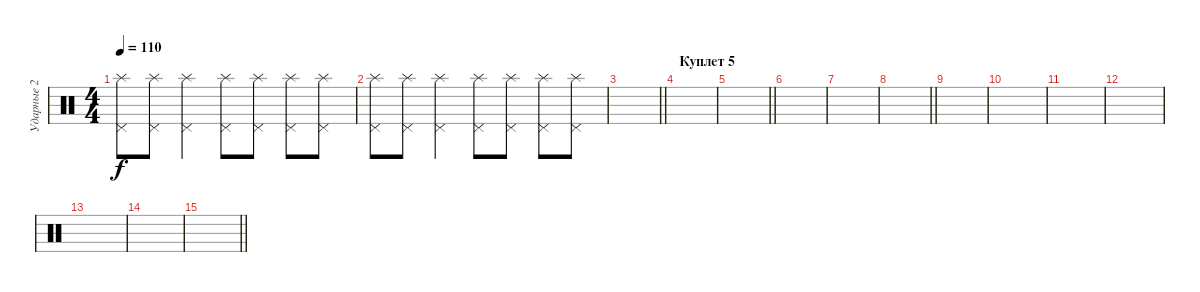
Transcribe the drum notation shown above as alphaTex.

\track ("Ударные 2" "Ударные 2") {instrument percussion}
\staff {score}
\articulation defaults
\ts (4 4)
\tempo 110
\clef neutral
\ks c
("Pedal Hi-Hat (hit)" "Splash (hit)").8{dy f} ("Pedal Hi-Hat (hit)" "Splash (hit)").8 ("Pedal Hi-Hat (hit)" "Splash (hit)").4 ("Pedal Hi-Hat (hit)" "Splash (hit)").8 ("Pedal Hi-Hat (hit)" "Splash (hit)").8 ("Pedal Hi-Hat (hit)" "Splash (hit)").8 ("Pedal Hi-Hat (hit)" "Splash (hit)").8 |
("Pedal Hi-Hat (hit)" "Splash (hit)").8 ("Pedal Hi-Hat (hit)" "Splash (hit)").8 ("Pedal Hi-Hat (hit)" "Splash (hit)").4 ("Pedal Hi-Hat (hit)" "Splash (hit)").8 ("Pedal Hi-Hat (hit)" "Splash (hit)").8 ("Pedal Hi-Hat (hit)" "Splash (hit)").8 ("Pedal Hi-Hat (hit)" "Splash (hit)").8 |
\barLineRight lightlight
|
\section ("" "Куплет 5")
|
\barLineRight lightlight
|
|
|
\barLineRight lightlight
|
|
|
|
|
|
|
\barLineRight lightlight
